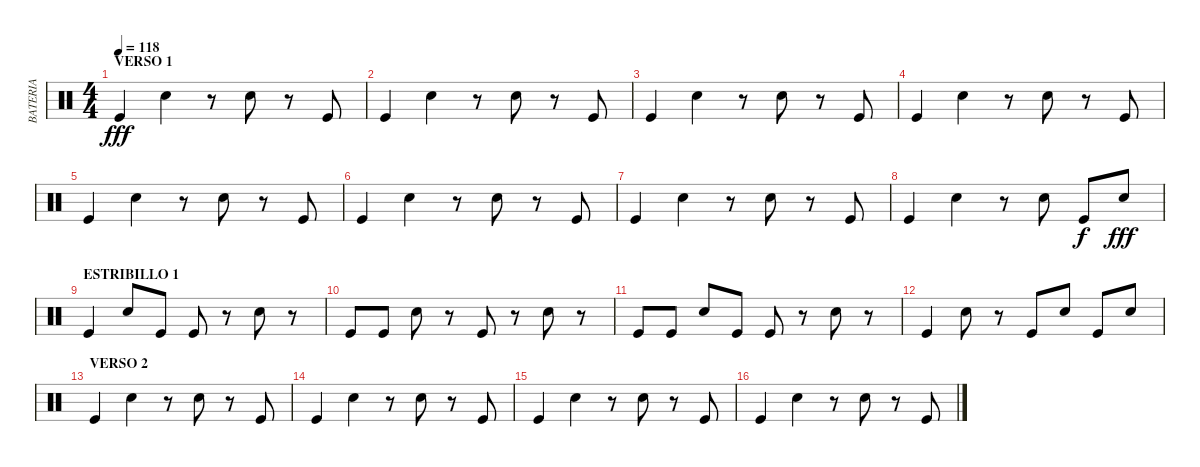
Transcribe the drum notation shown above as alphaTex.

\track ("BATERIA" "BATERIA") {instrument percussion}
\staff {score}
\articulation defaults
\ts (4 4)
\section ("" "VERSO 1")
\tempo 118
\clef neutral
\ks c "Kick (hit)".4{dy fff} "Snare (hit) 2".4
r.8 "Snare (hit) 2".8 r.8 "Kick (hit)".8 |
"Kick (hit)".4 "Snare (hit) 2".4 r.8 "Snare (hit) 2".8 r.8 "Kick (hit)".8 |
"Kick (hit)".4 "Snare (hit) 2".4 r.8 "Snare (hit) 2".8 r.8 "Kick (hit)".8 |
"Kick (hit)".4 "Snare (hit) 2".4 r.8 "Snare (hit) 2".8 r.8 "Kick (hit)".8 |
"Kick (hit)".4 "Snare (hit) 2".4 r.8 "Snare (hit) 2".8 r.8 "Kick (hit)".8 |
"Kick (hit)".4 "Snare (hit) 2".4 r.8 "Snare (hit) 2".8 r.8 "Kick (hit)".8 |
"Kick (hit)".4 "Snare (hit) 2".4 r.8 "Snare (hit) 2".8 r.8 "Kick (hit)".8 |
"Kick (hit)".4 "Snare (hit) 2".4 r.8 "Snare (hit) 2".8 "Kick (hit)".8{dy f} "Snare (hit) 2".8{dy fff} |
\section ("" "ESTRIBILLO 1")
"Kick (hit)".4 "Snare (hit) 2".8 "Kick (hit)".8 "Kick (hit)".8 r.8 "Snare (hit) 2".8 r.8 |
"Kick (hit)".8 "Kick (hit)".8 "Snare (hit) 2".8 r.8 "Kick (hit)".8 r.8 "Snare (hit) 2".8 r.8 |
"Kick (hit)".8 "Kick (hit)".8 "Snare (hit) 2".8 "Kick (hit)".8 "Kick (hit)".8 r.8 "Snare (hit) 2".8 r.8 |
"Kick (hit)".4 "Snare (hit) 2".8 r.8 "Kick (hit)".8 "Snare (hit) 2".8 "Kick (hit)".8 "Snare (hit) 2".8 |
\section ("" "VERSO 2")
"Kick (hit)".4 "Snare (hit) 2".4 r.8 "Snare (hit) 2".8 r.8 "Kick (hit)".8 |
"Kick (hit)".4 "Snare (hit) 2".4 r.8 "Snare (hit) 2".8 r.8 "Kick (hit)".8 |
"Kick (hit)".4 "Snare (hit) 2".4 r.8 "Snare (hit) 2".8 r.8 "Kick (hit)".8 |
"Kick (hit)".4 "Snare (hit) 2".4 r.8 "Snare (hit) 2".8 r.8 "Kick (hit)".8
